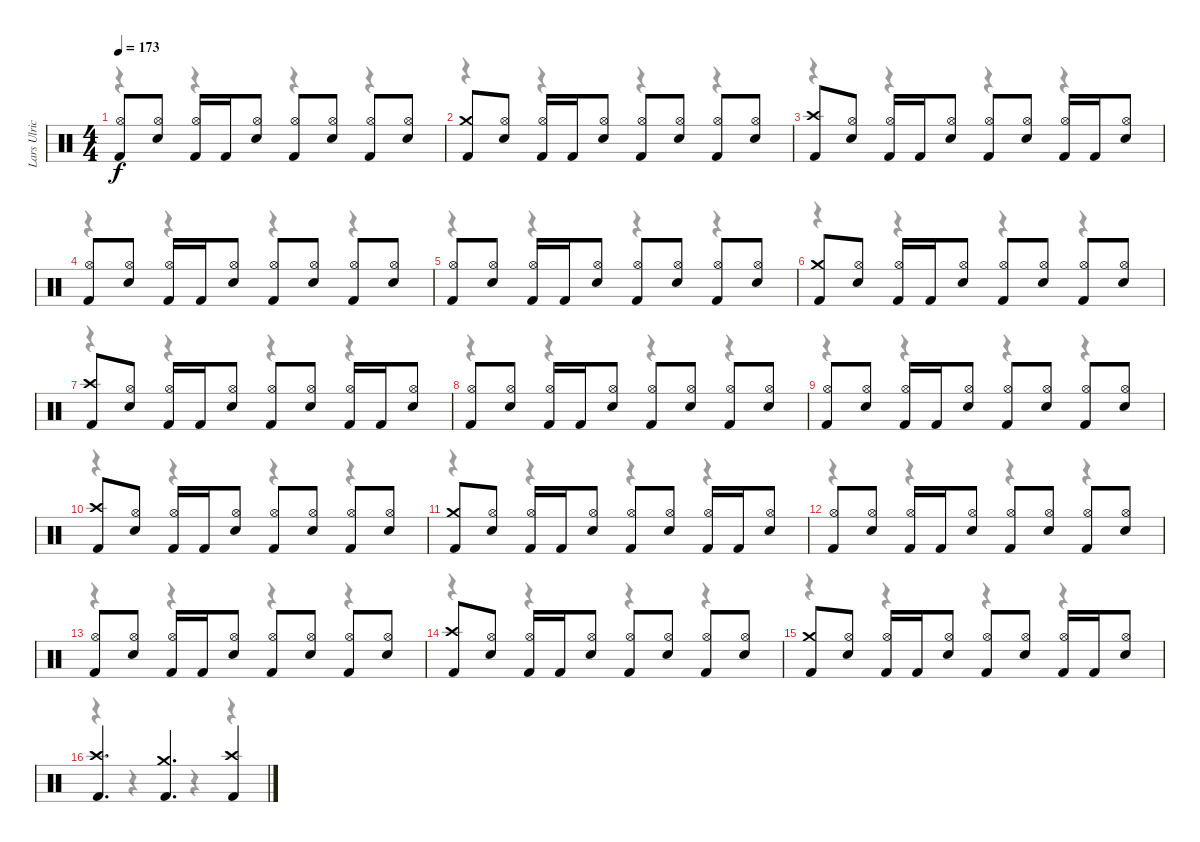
\track ("Lars Ulrich" "Lars Ulric") {instrument percussion}
\staff {score}
\articulation defaults
\voice
\ts (4 4)
\tempo 173
\clef neutral
\ks c
("Hi-Hat (open)" "Kick (hit) 2").8{dy f} ("Hi-Hat (open)" "Snare (hit) 2").8 ("Hi-Hat (open)" "Kick (hit) 2").16 "Kick (hit) 2".16 ("Hi-Hat (open)" "Snare (hit) 2").8 ("Hi-Hat (open)" "Kick (hit) 2").8 ("Hi-Hat (open)" "Snare (hit) 2").8 ("Hi-Hat (open)" "Kick (hit) 2").8 ("Hi-Hat (open)" "Snare (hit) 2").8 |
("Crash medium (hit)" "Kick (hit) 2").8 ("Hi-Hat (open)" "Snare (hit) 2").8 ("Hi-Hat (open)" "Kick (hit) 2").16 "Kick (hit) 2".16 ("Hi-Hat (open)" "Snare (hit) 2").8 ("Hi-Hat (open)" "Kick (hit) 2").8 ("Hi-Hat (open)" "Snare (hit) 2").8 ("Hi-Hat (open)" "Kick (hit) 2").8 ("Hi-Hat (open)" "Snare (hit) 2").8 |
("Crash high (hit)" "Kick (hit) 2").8 ("Hi-Hat (open)" "Snare (hit) 2").8 ("Hi-Hat (open)" "Kick (hit) 2").16 "Kick (hit) 2".16 ("Hi-Hat (open)" "Snare (hit) 2").8 ("Hi-Hat (open)" "Kick (hit) 2").8 ("Hi-Hat (open)" "Snare (hit) 2").8 ("Hi-Hat (open)" "Kick (hit) 2").16 "Kick (hit) 2".16 ("Hi-Hat (open)" "Snare (hit) 2").8 |
("Hi-Hat (open)" "Kick (hit) 2").8 ("Hi-Hat (open)" "Snare (hit) 2").8 ("Hi-Hat (open)" "Kick (hit) 2").16 "Kick (hit) 2".16 ("Hi-Hat (open)" "Snare (hit) 2").8 ("Hi-Hat (open)" "Kick (hit) 2").8 ("Hi-Hat (open)" "Snare (hit) 2").8 ("Hi-Hat (open)" "Kick (hit) 2").8 ("Hi-Hat (open)" "Snare (hit) 2").8 |
("Hi-Hat (open)" "Kick (hit) 2").8 ("Hi-Hat (open)" "Snare (hit) 2").8 ("Hi-Hat (open)" "Kick (hit) 2").16 "Kick (hit) 2".16 ("Hi-Hat (open)" "Snare (hit) 2").8 ("Hi-Hat (open)" "Kick (hit) 2").8 ("Hi-Hat (open)" "Snare (hit) 2").8 ("Hi-Hat (open)" "Kick (hit) 2").8 ("Hi-Hat (open)" "Snare (hit) 2").8 |
("Crash medium (hit)" "Kick (hit) 2").8 ("Hi-Hat (open)" "Snare (hit) 2").8 ("Hi-Hat (open)" "Kick (hit) 2").16 "Kick (hit) 2".16 ("Hi-Hat (open)" "Snare (hit) 2").8 ("Hi-Hat (open)" "Kick (hit) 2").8 ("Hi-Hat (open)" "Snare (hit) 2").8 ("Hi-Hat (open)" "Kick (hit) 2").8 ("Hi-Hat (open)" "Snare (hit) 2").8 |
("Crash high (hit)" "Kick (hit) 2").8 ("Hi-Hat (open)" "Snare (hit) 2").8 ("Hi-Hat (open)" "Kick (hit) 2").16 "Kick (hit) 2".16 ("Hi-Hat (open)" "Snare (hit) 2").8 ("Hi-Hat (open)" "Kick (hit) 2").8 ("Hi-Hat (open)" "Snare (hit) 2").8 ("Hi-Hat (open)" "Kick (hit) 2").16 "Kick (hit) 2".16 ("Hi-Hat (open)" "Snare (hit) 2").8 |
("Hi-Hat (open)" "Kick (hit) 2").8 ("Hi-Hat (open)" "Snare (hit) 2").8 ("Hi-Hat (open)" "Kick (hit) 2").16 "Kick (hit) 2".16 ("Hi-Hat (open)" "Snare (hit) 2").8 ("Hi-Hat (open)" "Kick (hit) 2").8 ("Hi-Hat (open)" "Snare (hit) 2").8 ("Hi-Hat (open)" "Kick (hit) 2").8 ("Hi-Hat (open)" "Snare (hit) 2").8 |
("Hi-Hat (open)" "Kick (hit) 2").8 ("Hi-Hat (open)" "Snare (hit) 2").8 ("Hi-Hat (open)" "Kick (hit) 2").16 "Kick (hit) 2".16 ("Hi-Hat (open)" "Snare (hit) 2").8 ("Hi-Hat (open)" "Kick (hit) 2").8 ("Hi-Hat (open)" "Snare (hit) 2").8 ("Hi-Hat (open)" "Kick (hit) 2").8 ("Hi-Hat (open)" "Snare (hit) 2").8 |
("Crash high (hit)" "Kick (hit) 2").8 ("Hi-Hat (open)" "Snare (hit) 2").8 ("Hi-Hat (open)" "Kick (hit) 2").16 "Kick (hit) 2".16 ("Hi-Hat (open)" "Snare (hit) 2").8 ("Hi-Hat (open)" "Kick (hit) 2").8 ("Hi-Hat (open)" "Snare (hit) 2").8 ("Hi-Hat (open)" "Kick (hit) 2").8 ("Hi-Hat (open)" "Snare (hit) 2").8 |
("Crash medium (hit)" "Kick (hit) 2").8 ("Hi-Hat (open)" "Snare (hit) 2").8 ("Hi-Hat (open)" "Kick (hit) 2").16 "Kick (hit) 2".16 ("Hi-Hat (open)" "Snare (hit) 2").8 ("Hi-Hat (open)" "Kick (hit) 2").8 ("Hi-Hat (open)" "Snare (hit) 2").8 ("Hi-Hat (open)" "Kick (hit) 2").16 "Kick (hit) 2".16 ("Hi-Hat (open)" "Snare (hit) 2").8 |
("Hi-Hat (open)" "Kick (hit) 2").8 ("Hi-Hat (open)" "Snare (hit) 2").8 ("Hi-Hat (open)" "Kick (hit) 2").16 "Kick (hit) 2".16 ("Hi-Hat (open)" "Snare (hit) 2").8 ("Hi-Hat (open)" "Kick (hit) 2").8 ("Hi-Hat (open)" "Snare (hit) 2").8 ("Hi-Hat (open)" "Kick (hit) 2").8 ("Hi-Hat (open)" "Snare (hit) 2").8 |
("Hi-Hat (open)" "Kick (hit) 2").8 ("Hi-Hat (open)" "Snare (hit) 2").8 ("Hi-Hat (open)" "Kick (hit) 2").16 "Kick (hit) 2".16 ("Hi-Hat (open)" "Snare (hit) 2").8 ("Hi-Hat (open)" "Kick (hit) 2").8 ("Hi-Hat (open)" "Snare (hit) 2").8 ("Hi-Hat (open)" "Kick (hit) 2").8 ("Hi-Hat (open)" "Snare (hit) 2").8 |
("Crash high (hit)" "Kick (hit) 2").8 ("Hi-Hat (open)" "Snare (hit) 2").8 ("Hi-Hat (open)" "Kick (hit) 2").16 "Kick (hit) 2".16 ("Hi-Hat (open)" "Snare (hit) 2").8 ("Hi-Hat (open)" "Kick (hit) 2").8 ("Hi-Hat (open)" "Snare (hit) 2").8 ("Hi-Hat (open)" "Kick (hit) 2").8 ("Hi-Hat (open)" "Snare (hit) 2").8 |
("Crash medium (hit)" "Kick (hit) 2").8 ("Hi-Hat (open)" "Snare (hit) 2").8 ("Hi-Hat (open)" "Kick (hit) 2").16 "Kick (hit) 2".16 ("Hi-Hat (open)" "Snare (hit) 2").8 ("Hi-Hat (open)" "Kick (hit) 2").8 ("Hi-Hat (open)" "Snare (hit) 2").8 ("Hi-Hat (open)" "Kick (hit) 2").16 "Kick (hit) 2".16 ("Hi-Hat (open)" "Snare (hit) 2").8 |
("Crash high (hit)" "Kick (hit) 2").4{d} ("Crash medium (hit)" "Kick (hit) 2").4{d} ("Crash high (hit)" "Kick (hit) 2").4
\voice
\clef neutral
\ottava regular
\simile none
\ks c
r.4{dy f} r.4 r.4 r.4 |
r.4 r.4 r.4 r.4 |
r.4 r.4 r.4 r.4 |
r.4 r.4 r.4 r.4 |
r.4 r.4 r.4 r.4 |
r.4 r.4 r.4 r.4 |
r.4 r.4 r.4 r.4 |
r.4 r.4 r.4 r.4 |
r.4 r.4 r.4 r.4 |
r.4 r.4 r.4 r.4 |
r.4 r.4 r.4 r.4 |
r.4 r.4 r.4 r.4 |
r.4 r.4 r.4 r.4 |
r.4 r.4 r.4 r.4 |
r.4 r.4 r.4 r.4 |
r.4 r.4 r.4 r.4
